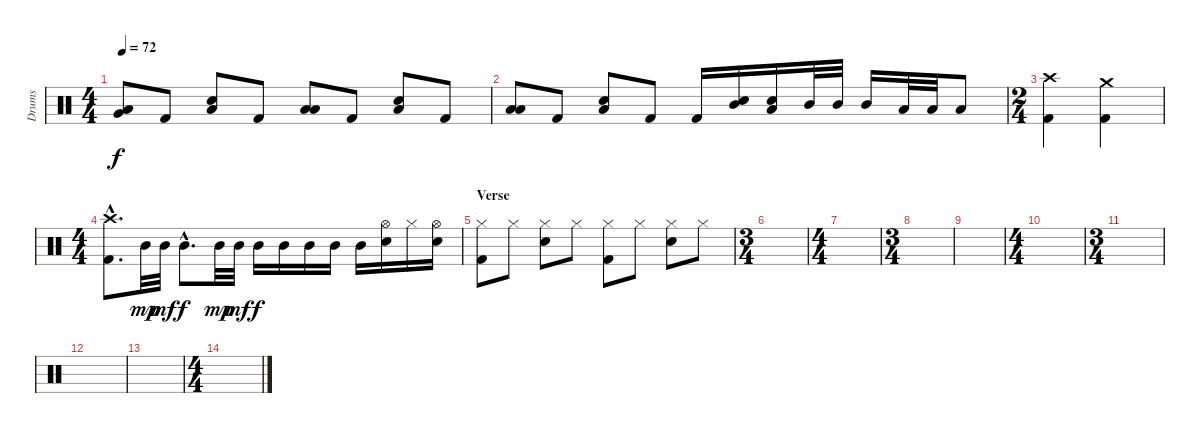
\track ("Drums" "Drums") {instrument percussion}
\staff {score}
\articulation defaults
\ts (4 4)
\tempo 72
\clef neutral
\ks c
("Very Low Tom (hit)" "Low Tom (hit)").8{dy f} "Kick (hit) 2".8 ("Electric Snare (hit)" "Low Tom (hit)").8 "Kick (hit) 2".8 ("Low Tom (hit)" "Low Tom (hit)").8 "Kick (hit) 2".8 ("Electric Snare (hit)" "Low Tom (hit)").8 "Kick (hit) 2".8 |
("Low Tom (hit)" "Low Tom (hit)").8 "Kick (hit) 2".8 ("Electric Snare (hit)" "Low Tom (hit)").8 "Kick (hit) 2".8 "Kick (hit) 2".16 ("Mid Tom (hit)" "Electric Snare (hit)").16 ("Low Tom (hit)" "Electric Snare (hit)").16 "Mid Tom (hit)".32 "Mid Tom (hit)".32 "Mid Tom (hit)".16 "Low Tom (hit)".32 "Low Tom (hit)".32 "Low Tom (hit)".8 |
\ts (2 4)
("Crash high (hit)" "Kick (hit) 2").4 ("Crash medium (hit)" "Kick (hit) 2").4 |
\ts (4 4)
("Crash high (hit)"{hac} "Kick (hit) 2"{hac}).8{d} "Mid Tom (hit)".32{dy mp} "Mid Tom (hit)".32{dy mf} "Mid Tom (hit)"{hac}.8{d dy f} "Mid Tom (hit)".32{dy mp} "Mid Tom (hit)".32{dy mf} "Mid Tom (hit)".16{dy f} "Mid Tom (hit)".16 "Mid Tom (hit)".16 "Mid Tom (hit)".16 "Mid Tom (hit)".16 ("Hi-Hat (open)" "Electric Snare (hit)").16 "Hi-Hat (closed)".16 ("Hi-Hat (open)" "Electric Snare (hit)").16 |
\section ("" "Verse")
("Hi-Hat (closed)" "Kick (hit) 2").8 "Hi-Hat (closed)".8 ("Hi-Hat (closed)" "Electric Snare (hit)").8 "Hi-Hat (closed)".8 ("Hi-Hat (closed)" "Kick (hit) 2").8 "Hi-Hat (closed)".8 ("Hi-Hat (closed)" "Electric Snare (hit)").8 "Hi-Hat (closed)".8 |
\ts (3 4)
|
\ts (4 4)
|
\ts (3 4)
|
|
\ts (4 4)
|
\ts (3 4)
|
|
|
\ts (4 4)
